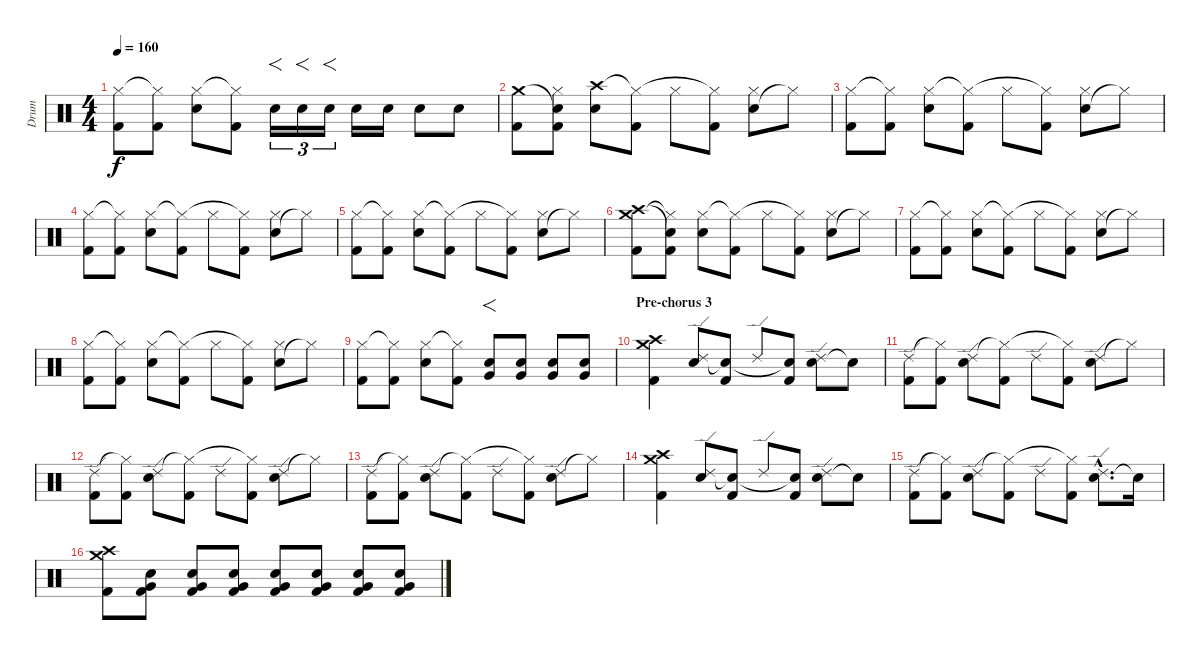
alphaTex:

\track ("Drum" "Drum") {instrument percussion}
\staff {score}
\articulation defaults
\ts (4 4)
\tempo 160
\clef neutral
\ks c
("Kick (hit) 2" "Hi-Hat (closed)").8{dy f} ("Kick (hit) 2" "Hi-Hat (closed)"{t}).8 ("Electric Snare (hit)" "Hi-Hat (closed)").8 ("Kick (hit) 2" "Hi-Hat (closed)"{t}).8 "Electric Snare (hit)".16{f tu (3 2)} "Electric Snare (hit)".16{f tu (3 2)} "Electric Snare (hit)".16{f tu (3 2)} "Electric Snare (hit)".16 "Electric Snare (hit)".16 "Electric Snare (hit)".8 "Electric Snare (hit)".8 |
("Kick (hit) 2" "Crash medium (hit)").8 ("Kick (hit) 2" "Electric Snare (hit)"{t} "Hi-Hat (closed)").8 ("Electric Snare (hit)" "Crash high (hit)").8 ("Kick (hit) 2" "Hi-Hat (closed)"{t}).8 "Hi-Hat (closed)".8 ("Kick (hit) 2" "Hi-Hat (closed)"{t}).8 ("Electric Snare (hit)" "Hi-Hat (closed)").8 "Hi-Hat (closed)"{t}.8 |
("Kick (hit) 2" "Hi-Hat (closed)").8 ("Kick (hit) 2" "Hi-Hat (closed)"{t}).8 ("Electric Snare (hit)" "Hi-Hat (closed)").8 ("Kick (hit) 2" "Hi-Hat (closed)"{t}).8 "Hi-Hat (closed)".8 ("Kick (hit) 2" "Hi-Hat (closed)"{t}).8 ("Electric Snare (hit)" "Hi-Hat (closed)").8 "Hi-Hat (closed)"{t}.8 |
("Kick (hit) 2" "Hi-Hat (closed)").8 ("Kick (hit) 2" "Hi-Hat (closed)"{t}).8 ("Electric Snare (hit)" "Hi-Hat (closed)").8 ("Kick (hit) 2" "Hi-Hat (closed)"{t}).8 "Hi-Hat (closed)".8 ("Kick (hit) 2" "Hi-Hat (closed)"{t}).8 ("Electric Snare (hit)" "Hi-Hat (closed)").8 "Hi-Hat (closed)"{t}.8 |
("Kick (hit) 2" "Hi-Hat (closed)").8 ("Kick (hit) 2" "Hi-Hat (closed)"{t}).8 ("Electric Snare (hit)" "Hi-Hat (closed)").8 ("Kick (hit) 2" "Hi-Hat (closed)"{t}).8 "Hi-Hat (closed)".8 ("Kick (hit) 2" "Hi-Hat (closed)"{t}).8 ("Electric Snare (hit)" "Hi-Hat (closed)").8 "Hi-Hat (closed)"{t}.8 |
("Kick (hit) 2" "Crash high (hit)" "Crash medium (hit)").8 ("Kick (hit) 2" "Electric Snare (hit)"{t} "Hi-Hat (closed)"{t}).8 ("Electric Snare (hit)" "Hi-Hat (closed)").8 ("Kick (hit) 2" "Hi-Hat (closed)"{t}).8 "Hi-Hat (closed)".8 ("Kick (hit) 2" "Hi-Hat (closed)"{t}).8 ("Electric Snare (hit)" "Hi-Hat (closed)").8 "Hi-Hat (closed)"{t}.8 |
("Kick (hit) 2" "Hi-Hat (closed)").8 ("Kick (hit) 2" "Hi-Hat (closed)"{t}).8 ("Electric Snare (hit)" "Hi-Hat (closed)").8 ("Kick (hit) 2" "Hi-Hat (closed)"{t}).8 "Hi-Hat (closed)".8 ("Kick (hit) 2" "Hi-Hat (closed)"{t}).8 ("Electric Snare (hit)" "Hi-Hat (closed)").8 "Hi-Hat (closed)"{t}.8 |
("Kick (hit) 2" "Hi-Hat (closed)").8 ("Kick (hit) 2" "Hi-Hat (closed)"{t}).8 ("Electric Snare (hit)" "Hi-Hat (closed)").8 ("Kick (hit) 2" "Hi-Hat (closed)"{t}).8 "Hi-Hat (closed)".8 ("Kick (hit) 2" "Hi-Hat (closed)"{t}).8 ("Electric Snare (hit)" "Hi-Hat (closed)").8 "Hi-Hat (closed)"{t}.8 |
("Kick (hit) 2" "Hi-Hat (closed)").8 ("Kick (hit) 2" "Hi-Hat (closed)"{t}).8 ("Electric Snare (hit)" "Hi-Hat (closed)").8 ("Kick (hit) 2" "Hi-Hat (closed)"{t}).8 ("Electric Snare (hit)" "Very Low Tom (hit)").8{f} ("Electric Snare (hit)" "Very Low Tom (hit)").8 ("Electric Snare (hit)" "Very Low Tom (hit)").8 ("Electric Snare (hit)" "Very Low Tom (hit)").8 |
\section ("" "Pre-chorus 3")
("Kick (hit) 2" "Crash high (hit)" "Crash medium (hit)").4 ("Electric Snare (hit)" "Ride (edge) 2").8 ("Kick (hit) 2" "Snare (hit)"{t}).8 "Ride (edge) 2".8 ("Kick (hit) 2" "Snare (hit)"{t}).8 ("Electric Snare (hit)" "Ride (edge) 2").8 "Snare (hit)"{t}.8 |
("Kick (hit) 2" "Ride (edge) 2").8 ("Kick (hit) 2" "Hi-Hat (closed)"{t}).8 ("Electric Snare (hit)" "Ride (edge) 2").8 ("Kick (hit) 2" "Hi-Hat (closed)"{t}).8 "Ride (edge) 2".8 ("Kick (hit) 2" "Hi-Hat (closed)"{t}).8 ("Electric Snare (hit)" "Ride (edge) 2").8 "Hi-Hat (closed)"{t}.8 |
("Kick (hit) 2" "Ride (edge) 2").8 ("Kick (hit) 2" "Hi-Hat (closed)"{t}).8 ("Electric Snare (hit)" "Ride (edge) 2").8 ("Kick (hit) 2" "Hi-Hat (closed)"{t}).8 "Ride (edge) 2".8 ("Kick (hit) 2" "Hi-Hat (closed)"{t}).8 ("Electric Snare (hit)" "Ride (edge) 2").8 "Hi-Hat (closed)"{t}.8 |
("Kick (hit) 2" "Ride (edge) 2").8 ("Kick (hit) 2" "Hi-Hat (closed)"{t}).8 ("Electric Snare (hit)" "Ride (edge) 2").8 ("Kick (hit) 2" "Hi-Hat (closed)"{t}).8 "Ride (edge) 2".8 ("Kick (hit) 2" "Hi-Hat (closed)"{t}).8 ("Electric Snare (hit)" "Ride (edge) 2").8 "Hi-Hat (closed)"{t}.8 |
("Kick (hit) 2" "Crash high (hit)" "Crash medium (hit)").4 ("Electric Snare (hit)" "Ride (edge) 2").8 ("Kick (hit) 2" "Snare (hit)"{t}).8 "Ride (edge) 2".8 ("Kick (hit) 2" "Snare (hit)"{t}).8 ("Electric Snare (hit)" "Ride (edge) 2").8 "Snare (hit)"{t}.8 |
("Kick (hit) 2" "Ride (edge) 2").8 ("Kick (hit) 2" "Hi-Hat (closed)"{t}).8 ("Electric Snare (hit)" "Ride (edge) 2").8 ("Kick (hit) 2" "Hi-Hat (closed)"{t}).8 "Ride (edge) 2".8 ("Kick (hit) 2" "Hi-Hat (closed)"{t}).8 ("Electric Snare (hit)"{hac} "Ride (edge) 2"{hac}).8{d} "Snare (hit)"{t}.16{volume 4} |
("Kick (hit) 2" "Crash high (hit)" "Crash medium (hit)").8{volume 10} ("Kick (hit) 2" "Electric Snare (hit)" "Very Low Tom (hit)").8 ("Kick (hit) 2" "Electric Snare (hit)" "Very Low Tom (hit)").8 ("Kick (hit) 2" "Electric Snare (hit)" "Very Low Tom (hit)").8 ("Kick (hit) 2" "Electric Snare (hit)" "Very Low Tom (hit)").8 ("Kick (hit) 2" "Electric Snare (hit)" "Very Low Tom (hit)").8 ("Kick (hit) 2" "Electric Snare (hit)" "Very Low Tom (hit)").8 ("Kick (hit) 2" "Electric Snare (hit)" "Very Low Tom (hit)").8
